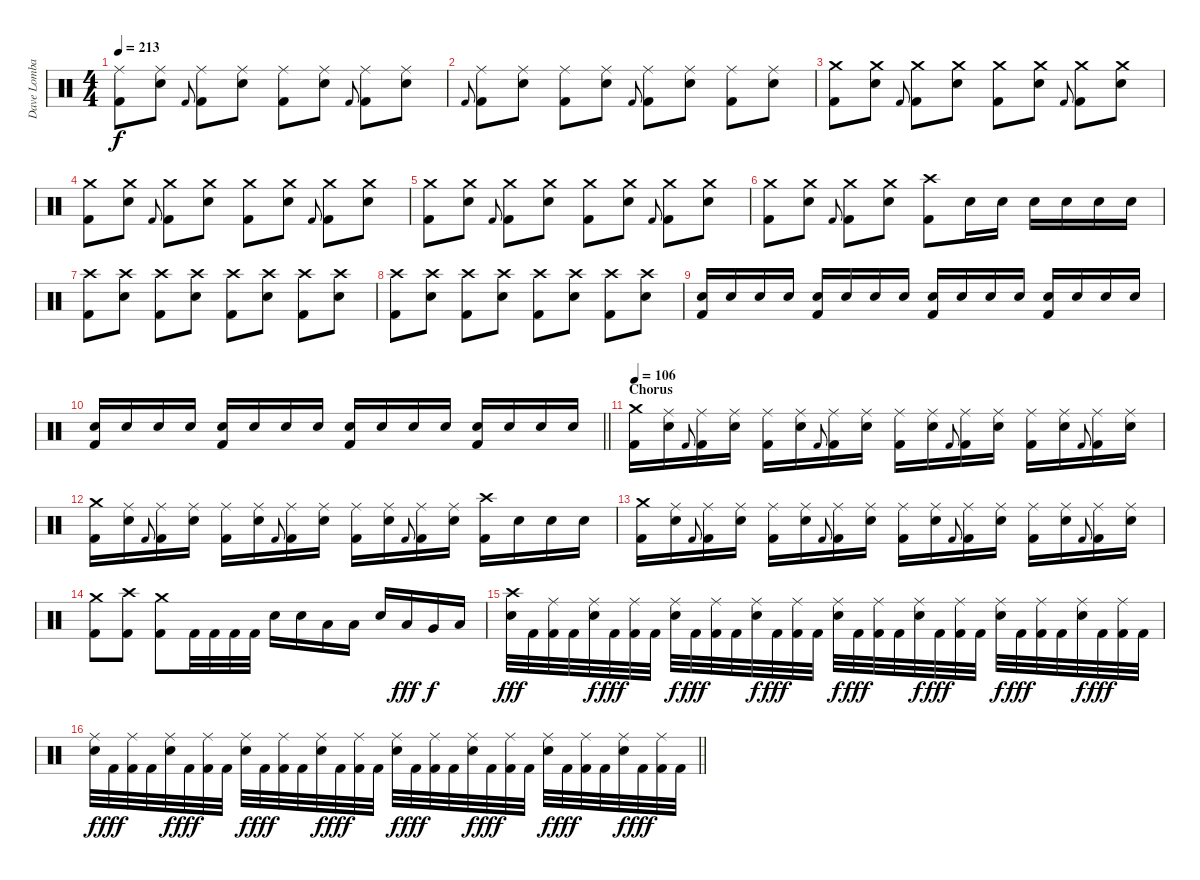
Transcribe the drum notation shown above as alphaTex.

\track ("Dave Lombardo" "Dave Lomba") {instrument percussion}
\staff {score}
\articulation defaults
\ts (4 4)
\tempo 213
\clef neutral
\ks c
("Ride (middle)" "Kick (hit) 2").8{dy f} ("Ride (middle)" "Snare (hit) 2").8 "Kick (hit) 2".8{gr onbeat} ("Ride (middle)" "Kick (hit) 2").8 ("Ride (middle)" "Snare (hit) 2").8 ("Ride (middle)" "Kick (hit) 2").8 ("Ride (middle)" "Snare (hit) 2").8 "Kick (hit) 2".8{gr onbeat} ("Ride (middle)" "Kick (hit) 2").8 ("Ride (middle)" "Snare (hit) 2").8 |
"Kick (hit) 2".8{gr onbeat} ("Ride (middle)" "Kick (hit) 2").8 ("Ride (middle)" "Snare (hit) 2").8 ("Ride (middle)" "Kick (hit) 2").8 ("Ride (middle)" "Snare (hit) 2").8 "Kick (hit) 2".8{gr onbeat} ("Ride (middle)" "Kick (hit) 2").8 ("Ride (middle)" "Snare (hit) 2").8 ("Ride (middle)" "Kick (hit) 2").8 ("Ride (middle)" "Snare (hit) 2").8 |
("Crash medium (hit)" "Kick (hit) 2").8 ("Crash medium (hit)" "Snare (hit) 2").8 "Kick (hit) 2".8{gr onbeat} ("Crash medium (hit)" "Kick (hit) 2").8 ("Crash medium (hit)" "Snare (hit) 2").8 ("Crash medium (hit)" "Kick (hit) 2").8 ("Crash medium (hit)" "Snare (hit) 2").8 "Kick (hit) 2".8{gr onbeat} ("Crash medium (hit)" "Kick (hit) 2").8 ("Crash medium (hit)" "Snare (hit) 2").8 |
("Crash medium (hit)" "Kick (hit) 2").8 ("Crash medium (hit)" "Snare (hit) 2").8 "Kick (hit) 2".8{gr onbeat} ("Crash medium (hit)" "Kick (hit) 2").8 ("Crash medium (hit)" "Snare (hit) 2").8 ("Crash medium (hit)" "Kick (hit) 2").8 ("Crash medium (hit)" "Snare (hit) 2").8 "Kick (hit) 2".8{gr onbeat} ("Crash medium (hit)" "Kick (hit) 2").8 ("Crash medium (hit)" "Snare (hit) 2").8 |
("Crash medium (hit)" "Kick (hit) 2").8 ("Crash medium (hit)" "Snare (hit) 2").8 "Kick (hit) 2".8{gr onbeat} ("Crash medium (hit)" "Kick (hit) 2").8 ("Crash medium (hit)" "Snare (hit) 2").8 ("Crash medium (hit)" "Kick (hit) 2").8 ("Crash medium (hit)" "Snare (hit) 2").8 "Kick (hit) 2".8{gr onbeat} ("Crash medium (hit)" "Kick (hit) 2").8 ("Crash medium (hit)" "Snare (hit) 2").8 |
("Crash medium (hit)" "Kick (hit) 2").8 ("Crash medium (hit)" "Snare (hit) 2").8 "Kick (hit) 2".8{gr onbeat} ("Crash medium (hit)" "Kick (hit) 2").8 ("Crash medium (hit)" "Snare (hit) 2").8 ("Crash high (hit)" "Kick (hit) 2").8 "Snare (hit) 2".16 "Snare (hit) 2".16 "Snare (hit) 2".16 "Snare (hit) 2".16 "Snare (hit) 2".16 "Snare (hit) 2".16 |
("Crash high (hit)" "Kick (hit) 2").8 ("Crash high (hit)" "Snare (hit) 2").8 ("Crash high (hit)" "Kick (hit) 2").8 ("Crash high (hit)" "Snare (hit) 2").8 ("Crash high (hit)" "Kick (hit) 2").8 ("Crash high (hit)" "Snare (hit) 2").8 ("Crash high (hit)" "Kick (hit) 2").8 ("Crash high (hit)" "Snare (hit) 2").8 |
("Crash high (hit)" "Kick (hit) 2").8 ("Crash high (hit)" "Snare (hit) 2").8 ("Crash high (hit)" "Kick (hit) 2").8 ("Crash high (hit)" "Snare (hit) 2").8 ("Crash high (hit)" "Kick (hit) 2").8 ("Crash high (hit)" "Snare (hit) 2").8 ("Crash high (hit)" "Kick (hit) 2").8 ("Crash high (hit)" "Snare (hit) 2").8 |
("Snare (hit) 2" "Kick (hit) 2").16 "Snare (hit) 2".16 "Snare (hit) 2".16 "Snare (hit) 2".16 ("Snare (hit) 2" "Kick (hit) 2").16 "Snare (hit) 2".16 "Snare (hit) 2".16 "Snare (hit) 2".16 ("Snare (hit) 2" "Kick (hit) 2").16 "Snare (hit) 2".16 "Snare (hit) 2".16 "Snare (hit) 2".16 ("Snare (hit) 2" "Kick (hit) 2").16 "Snare (hit) 2".16 "Snare (hit) 2".16 "Snare (hit) 2".16 |
\barLineRight lightlight
("Snare (hit) 2" "Kick (hit) 2").16 "Snare (hit) 2".16 "Snare (hit) 2".16 "Snare (hit) 2".16 ("Snare (hit) 2" "Kick (hit) 2").16 "Snare (hit) 2".16 "Snare (hit) 2".16 "Snare (hit) 2".16 ("Snare (hit) 2" "Kick (hit) 2").16 "Snare (hit) 2".16 "Snare (hit) 2".16 "Snare (hit) 2".16 ("Snare (hit) 2" "Kick (hit) 2").16 "Snare (hit) 2".16 "Snare (hit) 2".16 "Snare (hit) 2".16 |
\section ("" "Chorus")
\tempo 106
("Crash medium (hit)" "Kick (hit) 2").16 ("Ride (middle)" "Snare (hit) 2").16 "Kick (hit) 2".8{gr onbeat} ("Ride (middle)" "Kick (hit) 2").16 ("Ride (middle)" "Snare (hit) 2").16 ("Ride (middle)" "Kick (hit) 2").16 ("Ride (middle)" "Snare (hit) 2").16 "Kick (hit) 2".8{gr onbeat} ("Ride (middle)" "Kick (hit) 2").16 ("Ride (middle)" "Snare (hit) 2").16 ("Ride (middle)" "Kick (hit) 2").16 ("Ride (middle)" "Snare (hit) 2").16 "Kick (hit) 2".8{gr onbeat} ("Ride (middle)" "Kick (hit) 2").16 ("Ride (middle)" "Snare (hit) 2").16 ("Ride (middle)" "Kick (hit) 2").16 ("Ride (middle)" "Snare (hit) 2").16 "Kick (hit) 2".8{gr onbeat} ("Ride (middle)" "Kick (hit) 2").16 ("Ride (middle)" "Snare (hit) 2").16 |
("Crash medium (hit)" "Kick (hit) 2").16 ("Ride (middle)" "Snare (hit) 2").16 "Kick (hit) 2".8{gr onbeat} ("Ride (middle)" "Kick (hit) 2").16 ("Ride (middle)" "Snare (hit) 2").16 ("Ride (middle)" "Kick (hit) 2").16 ("Ride (middle)" "Snare (hit) 2").16 "Kick (hit) 2".8{gr onbeat} ("Ride (middle)" "Kick (hit) 2").16 ("Ride (middle)" "Snare (hit) 2").16 ("Ride (middle)" "Kick (hit) 2").16 ("Ride (middle)" "Snare (hit) 2").16 "Kick (hit) 2".8{gr onbeat} ("Ride (middle)" "Kick (hit) 2").16 ("Ride (middle)" "Snare (hit) 2").16 ("Crash high (hit)" "Kick (hit) 2").16 "Snare (hit) 2".16 "Snare (hit) 2".16 "Snare (hit) 2".16 |
("Crash medium (hit)" "Kick (hit) 2").16 ("Ride (middle)" "Snare (hit) 2").16 "Kick (hit) 2".8{gr onbeat} ("Ride (middle)" "Kick (hit) 2").16 ("Ride (middle)" "Snare (hit) 2").16 ("Ride (middle)" "Kick (hit) 2").16 ("Ride (middle)" "Snare (hit) 2").16 "Kick (hit) 2".8{gr onbeat} ("Ride (middle)" "Kick (hit) 2").16 ("Ride (middle)" "Snare (hit) 2").16 ("Ride (middle)" "Kick (hit) 2").16 ("Ride (middle)" "Snare (hit) 2").16 "Kick (hit) 2".8{gr onbeat} ("Ride (middle)" "Kick (hit) 2").16 ("Ride (middle)" "Snare (hit) 2").16 ("Ride (middle)" "Kick (hit) 2").16 ("Ride (middle)" "Snare (hit) 2").16 "Kick (hit) 2".8{gr onbeat} ("Ride (middle)" "Kick (hit) 2").16 ("Ride (middle)" "Snare (hit) 2").16 |
("Crash medium (hit)" "Kick (hit) 2").8 ("Crash high (hit)" "Kick (hit) 2").8 ("Crash medium (hit)" "Kick (hit) 2").8 "Kick (hit) 2".32 "Kick (hit) 2".32 "Kick (hit) 2".32 "Kick (hit) 2".32 "Snare (hit) 2".16 "Snare (hit) 2".16 "Low Floor Tom (hit)".16 "Low Floor Tom (hit)".16 "Snare (hit) 2".16 "Low Tom (hit)".16{dy fff} "Very Low Tom (hit)".16{dy f} "Low Floor Tom (hit)".16 |
("Crash high (hit)" "Snare (hit) 2").32{dy fff} "Kick (hit) 2".32 ("Ride (middle)" "Kick (hit) 2").32 "Kick (hit) 2".32 ("Ride (middle)" "Snare (hit) 2").32{dy f} "Kick (hit) 2".32{dy fff} ("Ride (middle)" "Kick (hit) 2").32 "Kick (hit) 2".32 ("Ride (middle)" "Snare (hit) 2").32{dy f} "Kick (hit) 2".32{dy fff} ("Ride (middle)" "Kick (hit) 2").32 "Kick (hit) 2".32 ("Ride (middle)" "Snare (hit) 2").32{dy f} "Kick (hit) 2".32{dy fff} ("Ride (middle)" "Kick (hit) 2").32 "Kick (hit) 2".32 ("Ride (middle)" "Snare (hit) 2").32{dy f} "Kick (hit) 2".32{dy fff} ("Ride (middle)" "Kick (hit) 2").32 "Kick (hit) 2".32 ("Ride (middle)" "Snare (hit) 2").32{dy f} "Kick (hit) 2".32{dy fff} ("Ride (middle)" "Kick (hit) 2").32 "Kick (hit) 2".32 ("Ride (middle)" "Snare (hit) 2").32{dy f} "Kick (hit) 2".32{dy fff} ("Ride (middle)" "Kick (hit) 2").32 "Kick (hit) 2".32 ("Ride (middle)" "Snare (hit) 2").32{dy f} "Kick (hit) 2".32{dy fff} ("Ride (middle)" "Kick (hit) 2").32 "Kick (hit) 2".32 |
\barLineRight lightlight
("Ride (middle)" "Snare (hit) 2").32{dy f} "Kick (hit) 2".32{dy fff} ("Ride (middle)" "Kick (hit) 2").32 "Kick (hit) 2".32 ("Ride (middle)" "Snare (hit) 2").32{dy f} "Kick (hit) 2".32{dy fff} ("Ride (middle)" "Kick (hit) 2").32 "Kick (hit) 2".32 ("Ride (middle)" "Snare (hit) 2").32{dy f} "Kick (hit) 2".32{dy fff} ("Ride (middle)" "Kick (hit) 2").32 "Kick (hit) 2".32 ("Ride (middle)" "Snare (hit) 2").32{dy f} "Kick (hit) 2".32{dy fff} ("Ride (middle)" "Kick (hit) 2").32 "Kick (hit) 2".32 ("Ride (middle)" "Snare (hit) 2").32{dy f} "Kick (hit) 2".32{dy fff} ("Ride (middle)" "Kick (hit) 2").32 "Kick (hit) 2".32 ("Ride (middle)" "Snare (hit) 2").32{dy f} "Kick (hit) 2".32{dy fff} ("Ride (middle)" "Kick (hit) 2").32 "Kick (hit) 2".32 ("Ride (middle)" "Snare (hit) 2").32{dy f} "Kick (hit) 2".32{dy fff} ("Ride (middle)" "Kick (hit) 2").32 "Kick (hit) 2".32 ("Ride (middle)" "Snare (hit) 2").32{dy f} "Kick (hit) 2".32{dy fff} ("Ride (middle)" "Kick (hit) 2").32 "Kick (hit) 2".32
